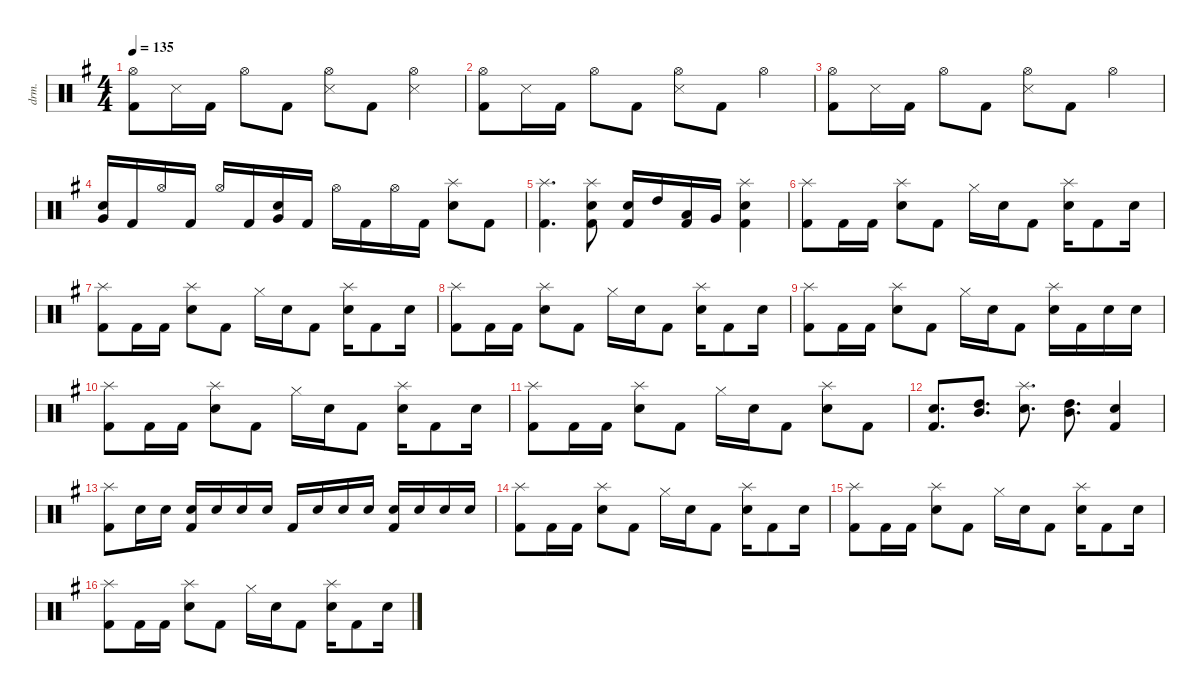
\defaultSystemsLayout 4
\hideDynamics
\bracketExtendMode nobrackets
\track ("榧" "drm.") {instrument percussion}
\staff {score}
\articulation defaults
\ts (4 4)
\tempo 135
\clef neutral
\ks eminor
("Hi-Hat (open)"{acc forcenatural} "Kick (hit) 2"{acc forcenatural}).8{dy mf beam Down} "Snare (side stick) 3"{acc forcenatural}.16{beam Down} "Kick (hit) 2"{acc forcenatural}.16{beam Down} "Hi-Hat (open)"{acc forcenatural}.8{beam Down} "Kick (hit) 2"{acc forcenatural}.8{beam Down} ("Hi-Hat (open)"{acc forcenatural} "Snare (side stick) 3"{acc forcenatural}).8{beam Down} "Kick (hit) 2"{acc forcenatural}.8{beam Down} ("Hi-Hat (open)"{acc forcenatural} "Snare (side stick) 3"{acc forcenatural}).4{beam Down} |
("Hi-Hat (open)"{acc forcenatural} "Kick (hit) 2"{acc forcenatural}).8{beam Down} "Snare (side stick) 3"{acc forcenatural}.16{beam Down} "Kick (hit) 2"{acc forcenatural}.16{beam Down} "Hi-Hat (open)"{acc forcenatural}.8{beam Down} "Kick (hit) 2"{acc forcenatural}.8{beam Down} ("Hi-Hat (open)"{acc forcenatural} "Snare (side stick) 3"{acc forcenatural}).8{beam Down} "Kick (hit) 2"{acc forcenatural}.8{beam Down} "Hi-Hat (open)"{acc forcenatural}.4{beam Down} |
("Hi-Hat (open)"{acc forcenatural} "Kick (hit) 2"{acc forcenatural}).8{beam Down} "Snare (side stick) 3"{acc forcenatural}.16{beam Down} "Kick (hit) 2"{acc forcenatural}.16{beam Down} "Hi-Hat (open)"{acc forcenatural}.8{beam Down} "Kick (hit) 2"{acc forcenatural}.8{beam Down} ("Hi-Hat (open)"{acc forcenatural} "Snare (side stick) 3"{acc forcenatural}).8{beam Down} "Kick (hit) 2"{acc forcenatural}.8{beam Down} "Hi-Hat (open)"{acc forcenatural}.4{beam Down} |
("Very Low Tom (hit)"{acc forcenatural} "Snare (hit) 2"{acc forcenatural}).16{beam Up} "Kick (hit) 2"{acc forcenatural}.16{beam Up} "Hi-Hat (open)"{acc forcenatural}.16{beam Up} "Kick (hit) 2"{acc forcenatural}.16{beam Up} "Hi-Hat (open)"{acc forcenatural}.16{beam Up} "Kick (hit) 2"{acc forcenatural}.16{beam Up} ("Very Low Tom (hit)"{acc forcenatural} "Snare (hit) 2"{acc forcenatural}).16{beam Up} "Kick (hit) 2"{acc forcenatural}.16{beam Up} "Hi-Hat (open)"{acc forcenatural}.16{beam Down} "Kick (hit) 2"{acc forcenatural}.16{beam Down} "Hi-Hat (open)"{acc forcenatural}.16{beam Down} "Kick (hit) 2"{acc forcenatural}.16{beam Down} ("Splash (hit)"{acc forcenatural} "Snare (hit) 2"{acc forcenatural}).8{beam Down} "Kick (hit) 2"{acc forcenatural}.8{beam Down} |
("Kick (hit) 2"{acc forcenatural} "Splash (hit)"{acc forcenatural}).4{d beam Down} ("Splash (hit)"{acc forcenatural} "Snare (hit) 2"{acc forcenatural} "Kick (hit) 2"{acc forcenatural}).8{beam Down} ("Kick (hit) 2"{acc forcenatural} "Snare (hit) 2"{acc forcenatural}).16{beam Up} "High Tom (hit)"{acc forcenatural}.16{beam Up} ("Kick (hit) 2"{acc forcenatural} "Low Tom (hit)"{acc forcenatural}).16{beam Up} "Very Low Tom (hit)"{acc forcenatural}.16{beam Up} ("Kick (hit) 2"{acc forcenatural} "Splash (hit)"{acc forcenatural} "Snare (hit) 2"{acc forcenatural}).4{beam Down} |
("Kick (hit) 2"{acc forcenatural} "Splash (hit)"{acc forcenatural}).8{beam Down} "Kick (hit) 2"{acc forcenatural}.16{beam Down} "Kick (hit) 2"{acc forcenatural}.16{beam Down} ("Splash (hit)"{acc forcenatural} "Snare (hit) 2"{acc forcenatural}).8{beam Down} "Kick (hit) 2"{acc forcenatural}.8{beam Down} "Hi-Hat (closed)"{acc forcenatural}.16{beam Down} "Snare (hit) 2"{acc forcenatural}.16{beam Down} "Kick (hit) 2"{acc forcenatural}.8{beam Down} ("Splash (hit)"{acc forcenatural} "Snare (hit) 2"{acc forcenatural}).16{beam Down} "Kick (hit) 2"{acc forcenatural}.8{beam Down} "Snare (hit) 2"{acc forcenatural}.16{beam Down} |
("Kick (hit) 2"{acc forcenatural} "Splash (hit)"{acc forcenatural}).8{beam Down} "Kick (hit) 2"{acc forcenatural}.16{beam Down} "Kick (hit) 2"{acc forcenatural}.16{beam Down} ("Splash (hit)"{acc forcenatural} "Snare (hit) 2"{acc forcenatural}).8{beam Down} "Kick (hit) 2"{acc forcenatural}.8{beam Down} "Hi-Hat (closed)"{acc forcenatural}.16{beam Down} "Snare (hit) 2"{acc forcenatural}.16{beam Down} "Kick (hit) 2"{acc forcenatural}.8{beam Down} ("Splash (hit)"{acc forcenatural} "Snare (hit) 2"{acc forcenatural}).16{beam Down} "Kick (hit) 2"{acc forcenatural}.8{beam Down} "Snare (hit) 2"{acc forcenatural}.16{beam Down} |
("Kick (hit) 2"{acc forcenatural} "Splash (hit)"{acc forcenatural}).8{beam Down} "Kick (hit) 2"{acc forcenatural}.16{beam Down} "Kick (hit) 2"{acc forcenatural}.16{beam Down} ("Splash (hit)"{acc forcenatural} "Snare (hit) 2"{acc forcenatural}).8{beam Down} "Kick (hit) 2"{acc forcenatural}.8{beam Down} "Hi-Hat (closed)"{acc forcenatural}.16{beam Down} "Snare (hit) 2"{acc forcenatural}.16{beam Down} "Kick (hit) 2"{acc forcenatural}.8{beam Down} ("Splash (hit)"{acc forcenatural} "Snare (hit) 2"{acc forcenatural}).16{beam Down} "Kick (hit) 2"{acc forcenatural}.8{beam Down} "Snare (hit) 2"{acc forcenatural}.16{beam Down} |
("Kick (hit) 2"{acc forcenatural} "Splash (hit)"{acc forcenatural}).8{beam Down} "Kick (hit) 2"{acc forcenatural}.16{beam Down} "Kick (hit) 2"{acc forcenatural}.16{beam Down} ("Splash (hit)"{acc forcenatural} "Snare (hit) 2"{acc forcenatural}).8{beam Down} "Kick (hit) 2"{acc forcenatural}.8{beam Down} "Hi-Hat (closed)"{acc forcenatural}.16{beam Down} "Snare (hit) 2"{acc forcenatural}.16{beam Down} "Kick (hit) 2"{acc forcenatural}.8{beam Down} ("Splash (hit)"{acc forcenatural} "Snare (hit) 2"{acc forcenatural}).16{beam Down} "Kick (hit) 2"{acc forcenatural}.16{beam Down} "Snare (hit) 2"{acc forcenatural}.16{beam Down} "Snare (hit) 2"{acc forcenatural}.16{beam Down} |
("Kick (hit) 2"{acc forcenatural} "Splash (hit)"{acc forcenatural}).8{beam Down} "Kick (hit) 2"{acc forcenatural}.16{beam Down} "Kick (hit) 2"{acc forcenatural}.16{beam Down} ("Splash (hit)"{acc forcenatural} "Snare (hit) 2"{acc forcenatural}).8{beam Down} "Kick (hit) 2"{acc forcenatural}.8{beam Down} "Hi-Hat (closed)"{acc forcenatural}.16{beam Down} "Snare (hit) 2"{acc forcenatural}.16{beam Down} "Kick (hit) 2"{acc forcenatural}.8{beam Down} ("Splash (hit)"{acc forcenatural} "Snare (hit) 2"{acc forcenatural}).16{beam Down} "Kick (hit) 2"{acc forcenatural}.8{beam Down} "Snare (hit) 2"{acc forcenatural}.16{beam Down} |
("Kick (hit) 2"{acc forcenatural} "Splash (hit)"{acc forcenatural}).8{beam Down} "Kick (hit) 2"{acc forcenatural}.16{beam Down} "Kick (hit) 2"{acc forcenatural}.16{beam Down} ("Splash (hit)"{acc forcenatural} "Snare (hit) 2"{acc forcenatural}).8{beam Down} "Kick (hit) 2"{acc forcenatural}.8{beam Down} "Hi-Hat (closed)"{acc forcenatural}.16{beam Down} "Snare (hit) 2"{acc forcenatural}.16{beam Down} "Kick (hit) 2"{acc forcenatural}.8{beam Down} ("Splash (hit)"{acc forcenatural} "Snare (hit) 2"{acc forcenatural}).8{beam Down} "Kick (hit) 2"{acc forcenatural}.8{beam Down} |
("Kick (hit) 2"{acc forcenatural} "Snare (hit) 2"{acc forcenatural}).8{d beam Up} ("Mid Tom (hit)"{acc forcenatural} "High Tom (hit)"{acc forcenatural}).8{d beam Up} ("Splash (hit)"{acc forcenatural} "Snare (hit) 2"{acc forcenatural}).8{d beam Down} ("Mid Tom (hit)"{acc forcenatural} "High Tom (hit)"{acc forcenatural}).8{d beam Down} ("Kick (hit) 2"{acc forcenatural} "Snare (hit) 2"{acc forcenatural}).4{beam Up} |
("Kick (hit) 2"{acc forcenatural} "Splash (hit)"{acc forcenatural}).8{beam Down} "Snare (hit) 2"{acc forcenatural}.16{beam Down} "Snare (hit) 2"{acc forcenatural}.16{beam Down} ("Snare (hit) 2"{acc forcenatural} "Kick (hit) 2"{acc forcenatural}).16{beam Up} "Snare (hit) 2"{acc forcenatural}.16{beam Up} "Snare (hit) 2"{acc forcenatural}.16{beam Up} "Snare (hit) 2"{acc forcenatural}.16{beam Up} "Kick (hit) 2"{acc forcenatural}.16{beam Up} "Snare (hit) 2"{acc forcenatural}.16{beam Up} "Snare (hit) 2"{acc forcenatural}.16{beam Up} "Snare (hit) 2"{acc forcenatural}.16{beam Up} ("Kick (hit) 2"{acc forcenatural} "Snare (hit) 2"{acc forcenatural}).16{beam Up} "Snare (hit) 2"{acc forcenatural}.16{beam Up} "Snare (hit) 2"{acc forcenatural}.16{beam Up} "Snare (hit) 2"{acc forcenatural}.16{beam Up} |
("Kick (hit) 2"{acc forcenatural} "Splash (hit)"{acc forcenatural}).8{beam Down} "Kick (hit) 2"{acc forcenatural}.16{beam Down} "Kick (hit) 2"{acc forcenatural}.16{beam Down} ("Splash (hit)"{acc forcenatural} "Snare (hit) 2"{acc forcenatural}).8{beam Down} "Kick (hit) 2"{acc forcenatural}.8{beam Down} "Hi-Hat (closed)"{acc forcenatural}.16{beam Down} "Snare (hit) 2"{acc forcenatural}.16{beam Down} "Kick (hit) 2"{acc forcenatural}.8{beam Down} ("Splash (hit)"{acc forcenatural} "Snare (hit) 2"{acc forcenatural}).16{beam Down} "Kick (hit) 2"{acc forcenatural}.8{beam Down} "Snare (hit) 2"{acc forcenatural}.16{beam Down} |
("Kick (hit) 2"{acc forcenatural} "Splash (hit)"{acc forcenatural}).8{beam Down} "Kick (hit) 2"{acc forcenatural}.16{beam Down} "Kick (hit) 2"{acc forcenatural}.16{beam Down} ("Splash (hit)"{acc forcenatural} "Snare (hit) 2"{acc forcenatural}).8{beam Down} "Kick (hit) 2"{acc forcenatural}.8{beam Down} "Hi-Hat (closed)"{acc forcenatural}.16{beam Down} "Snare (hit) 2"{acc forcenatural}.16{beam Down} "Kick (hit) 2"{acc forcenatural}.8{beam Down} ("Splash (hit)"{acc forcenatural} "Snare (hit) 2"{acc forcenatural}).16{beam Down} "Kick (hit) 2"{acc forcenatural}.8{beam Down} "Snare (hit) 2"{acc forcenatural}.16{beam Down} |
("Kick (hit) 2"{acc forcenatural} "Splash (hit)"{acc forcenatural}).8{beam Down} "Kick (hit) 2"{acc forcenatural}.16{beam Down} "Kick (hit) 2"{acc forcenatural}.16{beam Down} ("Splash (hit)"{acc forcenatural} "Snare (hit) 2"{acc forcenatural}).8{beam Down} "Kick (hit) 2"{acc forcenatural}.8{beam Down} "Hi-Hat (closed)"{acc forcenatural}.16{beam Down} "Snare (hit) 2"{acc forcenatural}.16{beam Down} "Kick (hit) 2"{acc forcenatural}.8{beam Down} ("Splash (hit)"{acc forcenatural} "Snare (hit) 2"{acc forcenatural}).16{beam Down} "Kick (hit) 2"{acc forcenatural}.8{beam Down} "Snare (hit) 2"{acc forcenatural}.16{beam Down}
